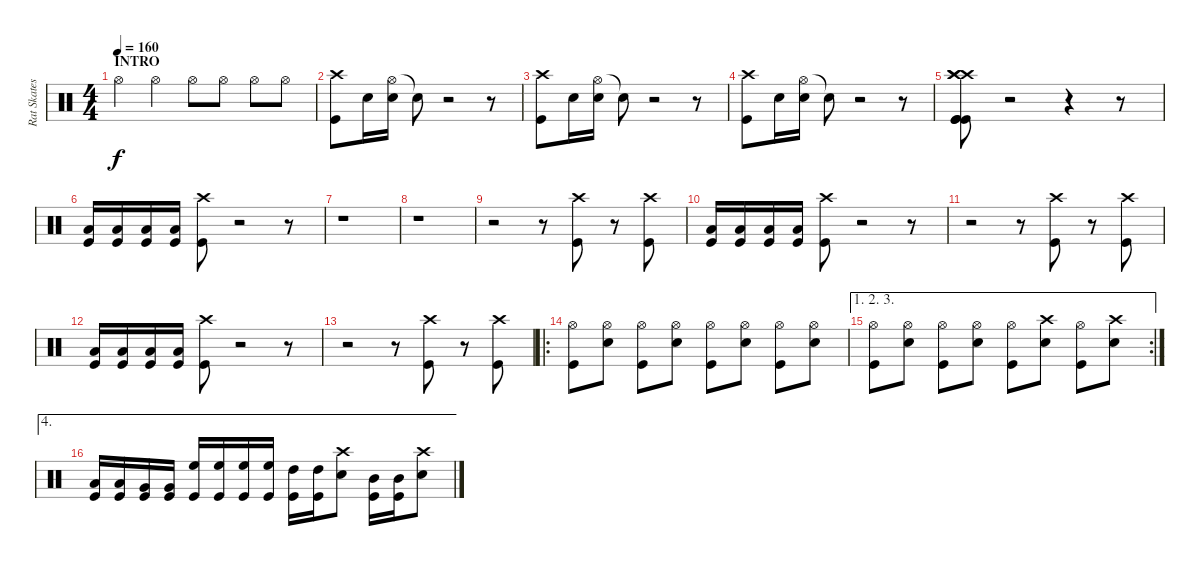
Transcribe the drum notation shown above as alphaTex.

\track ("Rat Skates" "Rat Skates") {instrument percussion}
\staff {score}
\articulation defaults
\ts (4 4)
\section ("" "INTRO")
\tempo 160
\clef neutral
\ks c "Hi-Hat (open)".4{dy f} "Hi-Hat (open)".4 "Hi-Hat (open)".8 "Hi-Hat (open)".8 "Hi-Hat (open)".8 "Hi-Hat (open)".8
|
("Kick (hit)" "Crash high (hit)").8 "Snare (hit) 2".16 ("Hi-Hat (open)" "Snare (hit) 2").16 "Snare (hit)"{t}.8 r.2 r.8 |
("Kick (hit)" "Crash high (hit)").8 "Snare (hit) 2".16 ("Hi-Hat (open)" "Snare (hit) 2").16 "Snare (hit)"{t}.8 r.2 r.8 |
("Kick (hit)" "Crash high (hit)").8 "Snare (hit) 2".16 ("Hi-Hat (open)" "Snare (hit) 2").16 "Snare (hit)"{t}.8 r.2 r.8 |
("Crash high (hit)" "Crash high (hit)" "Crash high (hit)" "Kick (hit)" "Kick (hit)" "Kick (hit)").8 r.2 r.4 r.8 |
("Kick (hit)" "Low Tom (hit)").16 ("Kick (hit)" "Low Tom (hit)").16 ("Kick (hit)" "Low Tom (hit)").16 ("Kick (hit)" "Low Tom (hit)").16 ("Kick (hit)" "Crash high (hit)").8 r.2 r.8 |
r.1 |
r.1 |
r.2 r.8 ("Kick (hit)" "Crash high (hit)").8 r.8 ("Crash high (hit)" "Kick (hit)").8 |
("Kick (hit)" "Low Tom (hit)").16 ("Kick (hit)" "Low Tom (hit)").16 ("Kick (hit)" "Low Tom (hit)").16 ("Kick (hit)" "Low Tom (hit)").16 ("Kick (hit)" "Crash high (hit)").8 r.2 r.8 |
r.2 r.8 ("Kick (hit)" "Crash high (hit)").8 r.8 ("Crash high (hit)" "Kick (hit)").8 |
("Kick (hit)" "Low Tom (hit)").16 ("Kick (hit)" "Low Tom (hit)").16 ("Kick (hit)" "Low Tom (hit)").16 ("Kick (hit)" "Low Tom (hit)").16 ("Kick (hit)" "Crash high (hit)").8 r.2 r.8 |
r.2 r.8 ("Kick (hit)" "Crash high (hit)").8 r.8 ("Crash high (hit)" "Kick (hit)").8 |
\ro
("Hi-Hat (open)" "Kick (hit)").8 ("Hi-Hat (open)" "Snare (hit) 2").8 ("Hi-Hat (open)" "Kick (hit)").8 ("Hi-Hat (open)" "Snare (hit) 2").8 ("Hi-Hat (open)" "Kick (hit)").8 ("Hi-Hat (open)" "Snare (hit) 2").8 ("Hi-Hat (open)" "Kick (hit)").8 ("Hi-Hat (open)" "Snare (hit) 2").8 |
\ae (1 2 3)
\rc 2
("Hi-Hat (open)" "Kick (hit)").8 ("Hi-Hat (open)" "Snare (hit) 2").8 ("Hi-Hat (open)" "Kick (hit)").8 ("Hi-Hat (open)" "Snare (hit) 2").8 ("Hi-Hat (open)" "Kick (hit)").8 ("Crash high (hit)" "Snare (hit) 2").8 ("Hi-Hat (open)" "Kick (hit)").8 ("Crash high (hit)" "Snare (hit) 2").8 |
\ae 4
("Low Tom (hit)" "Kick (hit)").16 ("Low Tom (hit)" "Kick (hit)").16 ("Very Low Tom (hit)" "Kick (hit)").16 ("Very Low Tom (hit)" "Kick (hit)").16 ("High Floor Tom (hit)" "Kick (hit)").16 ("High Floor Tom (hit)" "Kick (hit)").16 ("High Floor Tom (hit)" "Kick (hit)").16 ("High Floor Tom (hit)" "Kick (hit)").16 ("High Tom (hit)" "Kick (hit)").16 ("High Tom (hit)" "Kick (hit)").16 ("Crash high (hit)" "Snare (hit) 2").8 ("Mid Tom (hit)" "Kick (hit)").16 ("Mid Tom (hit)" "Kick (hit)").16 ("Crash high (hit)" "Snare (hit) 2").8
